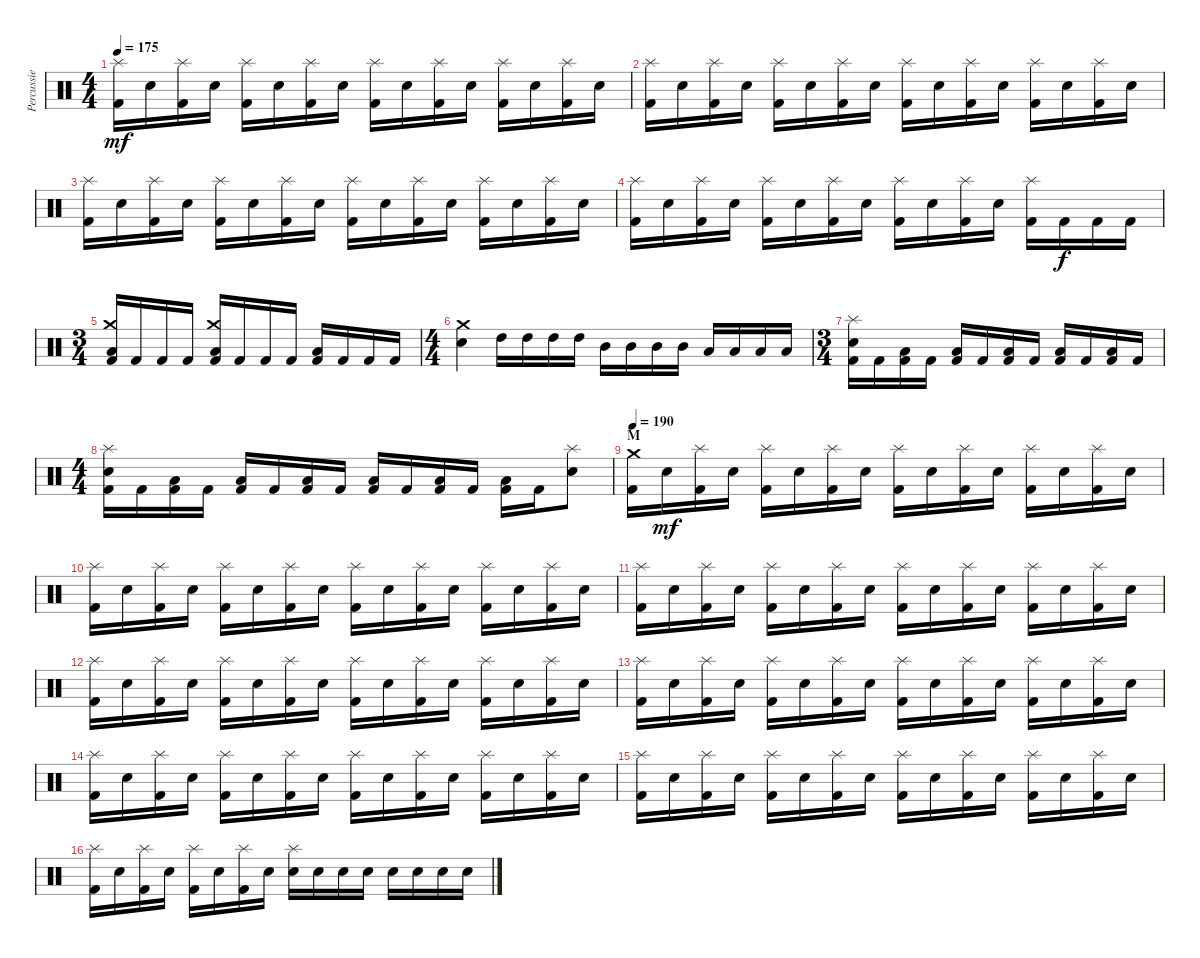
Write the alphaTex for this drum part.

\track ("Percussie" "Percussie") {instrument percussion}
\staff {score}
\articulation defaults
\ts (4 4)
\tempo 175
\clef neutral
\ks c
("Splash (hit)" "Kick (hit) 2").16{dy mf} "Electric Snare (hit)".16 ("Splash (hit)" "Kick (hit) 2").16 "Electric Snare (hit)".16 ("Splash (hit)" "Kick (hit) 2").16 "Electric Snare (hit)".16 ("Splash (hit)" "Kick (hit) 2").16 "Electric Snare (hit)".16 ("Splash (hit)" "Kick (hit) 2").16 "Electric Snare (hit)".16 ("Splash (hit)" "Kick (hit) 2").16 "Electric Snare (hit)".16 ("Splash (hit)" "Kick (hit) 2").16 "Electric Snare (hit)".16 ("Splash (hit)" "Kick (hit) 2").16 "Electric Snare (hit)".16 |
("Splash (hit)" "Kick (hit) 2").16 "Electric Snare (hit)".16 ("Splash (hit)" "Kick (hit) 2").16 "Electric Snare (hit)".16 ("Splash (hit)" "Kick (hit) 2").16 "Electric Snare (hit)".16 ("Splash (hit)" "Kick (hit) 2").16 "Electric Snare (hit)".16 ("Splash (hit)" "Kick (hit) 2").16 "Electric Snare (hit)".16 ("Splash (hit)" "Kick (hit) 2").16 "Electric Snare (hit)".16 ("Splash (hit)" "Kick (hit) 2").16 "Electric Snare (hit)".16 ("Splash (hit)" "Kick (hit) 2").16 "Electric Snare (hit)".16 |
("Splash (hit)" "Kick (hit) 2").16 "Electric Snare (hit)".16 ("Splash (hit)" "Kick (hit) 2").16 "Electric Snare (hit)".16 ("Splash (hit)" "Kick (hit) 2").16 "Electric Snare (hit)".16 ("Splash (hit)" "Kick (hit) 2").16 "Electric Snare (hit)".16 ("Splash (hit)" "Kick (hit) 2").16 "Electric Snare (hit)".16 ("Splash (hit)" "Kick (hit) 2").16 "Electric Snare (hit)".16 ("Splash (hit)" "Kick (hit) 2").16 "Electric Snare (hit)".16 ("Splash (hit)" "Kick (hit) 2").16 "Electric Snare (hit)".16 |
("Splash (hit)" "Kick (hit) 2").16 "Electric Snare (hit)".16 ("Splash (hit)" "Kick (hit) 2").16 "Electric Snare (hit)".16 ("Splash (hit)" "Kick (hit) 2").16 "Electric Snare (hit)".16 ("Splash (hit)" "Kick (hit) 2").16 "Electric Snare (hit)".16 ("Splash (hit)" "Kick (hit) 2").16 "Electric Snare (hit)".16 ("Splash (hit)" "Kick (hit) 2").16 "Electric Snare (hit)".16 ("Splash (hit)" "Kick (hit) 2").16 "Kick (hit) 2".16{dy f} "Kick (hit) 2".16 "Kick (hit) 2".16 |
\ts (3 4)
("Crash medium (hit)" "Low Tom (hit)" "Kick (hit) 2").16 "Kick (hit) 2".16 "Kick (hit) 2".16 "Kick (hit) 2".16 ("Crash medium (hit)" "Low Tom (hit)" "Kick (hit) 2").16 "Kick (hit) 2".16 "Kick (hit) 2".16 "Kick (hit) 2".16 ("Low Tom (hit)" "Kick (hit) 2").16 "Kick (hit) 2".16 "Kick (hit) 2".16 "Kick (hit) 2".16 |
\ts (4 4)
("Crash medium (hit)" "Electric Snare (hit)").4 "High Tom (hit)".16 "High Tom (hit)".16 "High Tom (hit)".16 "High Tom (hit)".16 "Mid Tom (hit)".16 "Mid Tom (hit)".16 "Mid Tom (hit)".16 "Mid Tom (hit)".16 "Low Tom (hit)".16 "Low Tom (hit)".16 "Low Tom (hit)".16 "Low Tom (hit)".16 |
\ts (3 4)
("Splash (hit)" "Electric Snare (hit)" "Kick (hit) 2").16 "Kick (hit) 2".16 ("Low Tom (hit)" "Kick (hit) 2").16 "Kick (hit) 2".16 ("Low Tom (hit)" "Kick (hit) 2").16 "Kick (hit) 2".16 ("Low Tom (hit)" "Kick (hit) 2").16 "Kick (hit) 2".16 ("Low Tom (hit)" "Kick (hit) 2").16 "Kick (hit) 2".16 ("Low Tom (hit)" "Kick (hit) 2").16 "Kick (hit) 2".16 |
\ts (4 4)
("Splash (hit)" "Electric Snare (hit)" "Kick (hit) 2").16 "Kick (hit) 2".16 ("Low Tom (hit)" "Kick (hit) 2").16 "Kick (hit) 2".16 ("Low Tom (hit)" "Kick (hit) 2").16 "Kick (hit) 2".16 ("Low Tom (hit)" "Kick (hit) 2").16 "Kick (hit) 2".16 ("Low Tom (hit)" "Kick (hit) 2").16 "Kick (hit) 2".16 ("Low Tom (hit)" "Kick (hit) 2").16 "Kick (hit) 2".16 ("Low Tom (hit)" "Kick (hit) 2").16 "Kick (hit) 2".16 ("Splash (hit)" "Electric Snare (hit)").8 |
\section ("" "M")
\tempo 190
("Crash medium (hit)" "Kick (hit) 2").16 "Electric Snare (hit)".16{dy mf} ("Splash (hit)" "Kick (hit) 2").16 "Electric Snare (hit)".16 ("Splash (hit)" "Kick (hit) 2").16 "Electric Snare (hit)".16 ("Splash (hit)" "Kick (hit) 2").16 "Electric Snare (hit)".16 ("Splash (hit)" "Kick (hit) 2").16 "Electric Snare (hit)".16 ("Splash (hit)" "Kick (hit) 2").16 "Electric Snare (hit)".16 ("Splash (hit)" "Kick (hit) 2").16 "Electric Snare (hit)".16 ("Splash (hit)" "Kick (hit) 2").16 "Electric Snare (hit)".16 |
("Splash (hit)" "Kick (hit) 2").16 "Electric Snare (hit)".16 ("Splash (hit)" "Kick (hit) 2").16 "Electric Snare (hit)".16 ("Splash (hit)" "Kick (hit) 2").16 "Electric Snare (hit)".16 ("Splash (hit)" "Kick (hit) 2").16 "Electric Snare (hit)".16 ("Splash (hit)" "Kick (hit) 2").16 "Electric Snare (hit)".16 ("Splash (hit)" "Kick (hit) 2").16 "Electric Snare (hit)".16 ("Splash (hit)" "Kick (hit) 2").16 "Electric Snare (hit)".16 ("Splash (hit)" "Kick (hit) 2").16 "Electric Snare (hit)".16 |
("Splash (hit)" "Kick (hit) 2").16 "Electric Snare (hit)".16 ("Splash (hit)" "Kick (hit) 2").16 "Electric Snare (hit)".16 ("Splash (hit)" "Kick (hit) 2").16 "Electric Snare (hit)".16 ("Splash (hit)" "Kick (hit) 2").16 "Electric Snare (hit)".16 ("Splash (hit)" "Kick (hit) 2").16 "Electric Snare (hit)".16 ("Splash (hit)" "Kick (hit) 2").16 "Electric Snare (hit)".16 ("Splash (hit)" "Kick (hit) 2").16 "Electric Snare (hit)".16 ("Splash (hit)" "Kick (hit) 2").16 "Electric Snare (hit)".16 |
("Splash (hit)" "Kick (hit) 2").16 "Electric Snare (hit)".16 ("Splash (hit)" "Kick (hit) 2").16 "Electric Snare (hit)".16 ("Splash (hit)" "Kick (hit) 2").16 "Electric Snare (hit)".16 ("Splash (hit)" "Kick (hit) 2").16 "Electric Snare (hit)".16 ("Splash (hit)" "Kick (hit) 2").16 "Electric Snare (hit)".16 ("Splash (hit)" "Kick (hit) 2").16 "Electric Snare (hit)".16 ("Splash (hit)" "Kick (hit) 2").16 "Electric Snare (hit)".16 ("Splash (hit)" "Kick (hit) 2").16 "Electric Snare (hit)".16 |
("Splash (hit)" "Kick (hit) 2").16 "Electric Snare (hit)".16 ("Splash (hit)" "Kick (hit) 2").16 "Electric Snare (hit)".16 ("Splash (hit)" "Kick (hit) 2").16 "Electric Snare (hit)".16 ("Splash (hit)" "Kick (hit) 2").16 "Electric Snare (hit)".16 ("Splash (hit)" "Kick (hit) 2").16 "Electric Snare (hit)".16 ("Splash (hit)" "Kick (hit) 2").16 "Electric Snare (hit)".16 ("Splash (hit)" "Kick (hit) 2").16 "Electric Snare (hit)".16 ("Splash (hit)" "Kick (hit) 2").16 "Electric Snare (hit)".16 |
("Splash (hit)" "Kick (hit) 2").16 "Electric Snare (hit)".16 ("Splash (hit)" "Kick (hit) 2").16 "Electric Snare (hit)".16 ("Splash (hit)" "Kick (hit) 2").16 "Electric Snare (hit)".16 ("Splash (hit)" "Kick (hit) 2").16 "Electric Snare (hit)".16 ("Splash (hit)" "Kick (hit) 2").16 "Electric Snare (hit)".16 ("Splash (hit)" "Kick (hit) 2").16 "Electric Snare (hit)".16 ("Splash (hit)" "Kick (hit) 2").16 "Electric Snare (hit)".16 ("Splash (hit)" "Kick (hit) 2").16 "Electric Snare (hit)".16 |
("Splash (hit)" "Kick (hit) 2").16 "Electric Snare (hit)".16 ("Splash (hit)" "Kick (hit) 2").16 "Electric Snare (hit)".16 ("Splash (hit)" "Kick (hit) 2").16 "Electric Snare (hit)".16 ("Splash (hit)" "Kick (hit) 2").16 "Electric Snare (hit)".16 ("Splash (hit)" "Kick (hit) 2").16 "Electric Snare (hit)".16 ("Splash (hit)" "Kick (hit) 2").16 "Electric Snare (hit)".16 ("Splash (hit)" "Kick (hit) 2").16 "Electric Snare (hit)".16 ("Splash (hit)" "Kick (hit) 2").16 "Electric Snare (hit)".16 |
("Splash (hit)" "Kick (hit) 2").16 "Electric Snare (hit)".16 ("Splash (hit)" "Kick (hit) 2").16 "Electric Snare (hit)".16 ("Splash (hit)" "Kick (hit) 2").16 "Electric Snare (hit)".16 ("Splash (hit)" "Kick (hit) 2").16 "Electric Snare (hit)".16 ("Splash (hit)" "Electric Snare (hit)").16 "Electric Snare (hit)".16 "Electric Snare (hit)".16 "Electric Snare (hit)".16 "Electric Snare (hit)".16 "Electric Snare (hit)".16 "Electric Snare (hit)".16 "Electric Snare (hit)".16
